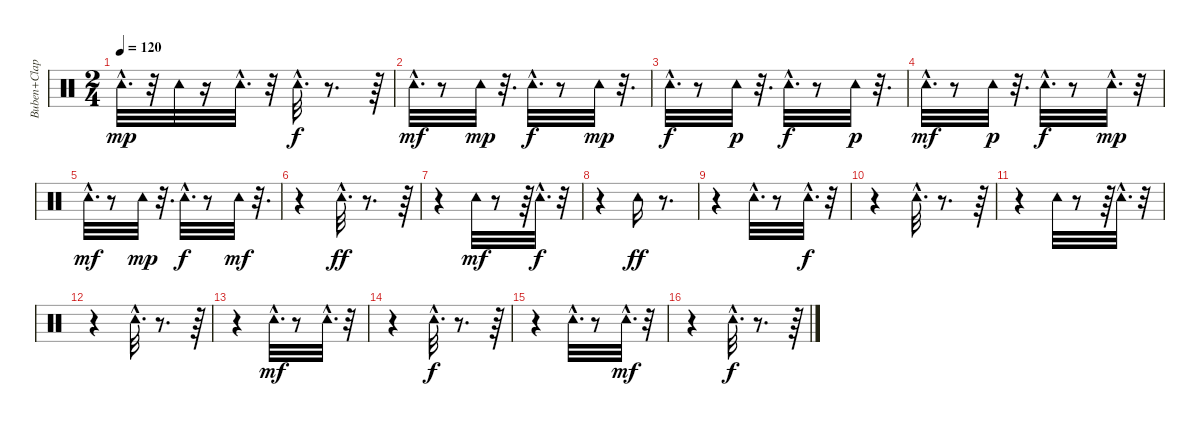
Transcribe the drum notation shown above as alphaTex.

\track ("Buben+Clap" "Buben+Clap") {instrument percussion}
\staff {score}
\articulation defaults
\ts (2 4)
\tempo 120
\clef neutral
\ks c "Tambourine (hit)"{hac}.32{d dy mp}
r.32 "Tambourine (hit)".32 r.16 "Tambourine (hit)"{hac}.32{d} r.32 "Tambourine (hit)"{hac}.32{d dy f} r.8{d} r.64 |
"Tambourine (hit)"{hac}.32{d dy mf} r.8 "Tambourine (hit)".32{dy mp} r.32{d} "Tambourine (hit)"{hac}.32{d dy f} r.8 "Tambourine (hit)".32{dy mp} r.32{d} |
"Tambourine (hit)"{hac}.32{d dy f} r.8 "Tambourine (hit)".32{dy p} r.32{d} "Tambourine (hit)"{hac}.32{d dy f} r.8 "Tambourine (hit)".32{dy p} r.32{d} |
"Tambourine (hit)"{hac}.32{d dy mf} r.8 "Tambourine (hit)".32{dy p} r.32{d} "Tambourine (hit)"{hac}.32{d dy f} r.8 "Tambourine (hit)"{hac}.32{d dy mp} r.32 |
"Tambourine (hit)"{hac}.32{d dy mf} r.8 "Tambourine (hit)".32{dy mp} r.32{d} "Tambourine (hit)"{hac}.32{d dy f} r.8 "Tambourine (hit)".32{dy mf} r.32{d} |
r.4 "Tambourine (hit)"{hac}.32{d dy ff} r.8{d} r.64 |
r.4 "Tambourine (hit)".32{dy mf} r.8 r.64 "Tambourine (hit)"{hac}.32{d dy f} r.32 |
r.4 "Tambourine (hit)".16{dy ff} r.8{d} |
r.4 "Tambourine (hit)"{hac}.32{d} r.8 "Tambourine (hit)"{hac}.32{d dy f} r.32 |
r.4 "Tambourine (hit)"{hac}.32{d} r.8{d} r.64 |
r.4 "Tambourine (hit)".32 r.8 r.64 "Tambourine (hit)"{hac}.32{d} r.32 |
r.4 "Tambourine (hit)"{hac}.32{d} r.8{d} r.64 |
r.4 "Tambourine (hit)"{hac}.32{d dy mf} r.8 "Tambourine (hit)"{hac}.32{d} r.32 |
r.4 "Tambourine (hit)"{hac}.32{d dy f} r.8{d} r.64 |
r.4 "Tambourine (hit)"{hac}.32{d} r.8 "Tambourine (hit)"{hac}.32{d dy mf} r.32 |
r.4 "Tambourine (hit)"{hac}.32{d dy f} r.8{d} r.64
